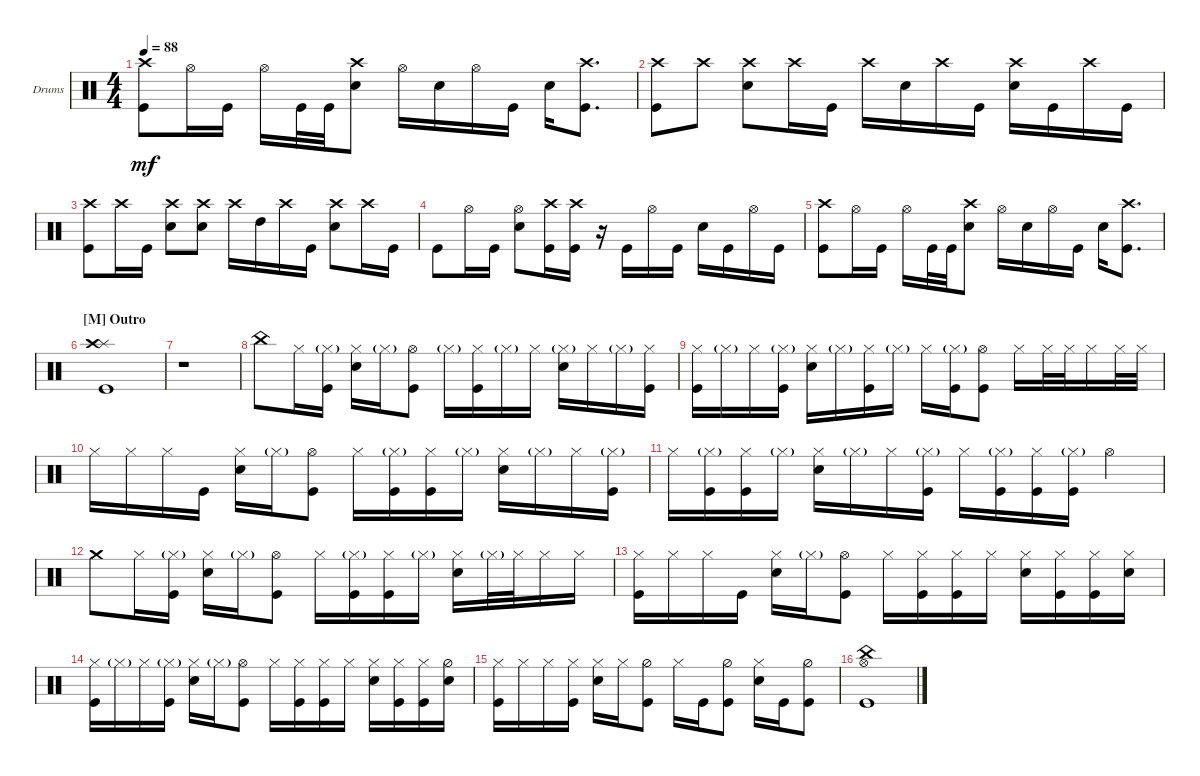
\defaultSystemsLayout 4
\bracketExtendMode groupsimilarinstruments
\firstSystemTrackNameOrientation horizontal
\otherSystemsTrackNameOrientation horizontal
\track ("Drumkit" "Drums") {instrument percussion}
\staff {score}
\articulation defaults
\ts (4 4)
\tempo 88
\clef neutral
\scale
0.333333
\ks c
("Kick (hit)" "Crash high (hit)").8{dy mf} "Hi-Hat (open)".16 "Kick (hit)".16 "Hi-Hat (open)".16 "Kick (hit)".32 "Kick (hit)".32 ("Snare (hit) 2" "Crash high (hit)").8 "Hi-Hat (open)".16 "Snare (hit) 2".16 "Hi-Hat (open)".16 "Kick (hit)".16 "Snare (hit) 2".16 ("Kick (hit)" "Crash high (hit)").8{d} |
\scale
0.333333 ("Kick (hit)" "Crash high (hit)").8 "Crash high (hit)".8 ("Crash high (hit)" "Snare (hit) 2").8 "Crash high (hit)".16 "Kick (hit)".16 "Crash high (hit)".16 "Snare (hit) 2".16 "Crash high (hit)".16 "Kick (hit)".16 ("Snare (hit) 2" "Crash high (hit)").16 "Kick (hit)".16 "Crash high (hit)".16 "Kick (hit)".16 |
\scale
0.333333 ("Crash high (hit)" "Kick (hit)").8 "Crash high (hit)".16 "Kick (hit)".16 ("Snare (hit) 2" "Crash high (hit)").8 ("Snare (hit) 2" "Crash high (hit)").8 "Crash high (hit)".16 "High Tom (hit)".16 "Crash high (hit)".16 "Kick (hit)".16 ("Snare (hit) 2" "Crash high (hit)").8 "Crash high (hit)".16 "Kick (hit)".16 |
\scale
0.333333 "Kick (hit)".8 "Hi-Hat (open)".16 "Kick (hit)".16 ("Snare (hit) 2" "Hi-Hat (open)").8 ("Kick (hit)" "Crash high (hit)").16 ("Kick (hit)" "Crash high (hit)").16 r.16 "Kick (hit)".16 "Hi-Hat (open)".16 "Kick (hit)".16 "Snare (hit) 2".16 "Kick (hit)".16 "Hi-Hat (open)".16 "Kick (hit)".16 |
\scale
0.333333 ("Kick (hit)" "Crash high (hit)").8 "Hi-Hat (open)".16 "Kick (hit)".16 "Hi-Hat (open)".16 "Kick (hit)".32 "Kick (hit)".32 ("Snare (hit) 2" "Crash high (hit)").8 "Hi-Hat (open)".16 "Snare (hit) 2".16 "Hi-Hat (open)".16 "Kick (hit)".16 "Snare (hit) 2".16 ("Kick (hit)" "Crash high (hit)").8{d} |
\section ("M" "Outro")
\scale
0.333333 ("Kick (hit)" "Splash (hit)" "Crash high (hit)").1 |
\scale
0.333333 r.1 |
\scale
0.333333 "China (hit)".8 "Hi-Hat (closed)".16 ("Hi-Hat (closed)"{g} "Kick (hit)").16 ("Hi-Hat (closed)" "Snare (hit) 2").16 "Hi-Hat (closed)"{g}.16 ("Hi-Hat (open)" "Kick (hit)").8 "Hi-Hat (closed)"{g}.16 ("Hi-Hat (closed)" "Kick (hit)").16 "Hi-Hat (closed)"{g}.16 "Hi-Hat (closed)".16 ("Hi-Hat (closed)"{g} "Snare (hit) 2").16 "Hi-Hat (closed)".16 "Hi-Hat (closed)"{g}.16 ("Hi-Hat (closed)" "Kick (hit)").16 |
\scale
0.333333 ("Hi-Hat (closed)" "Kick (hit)").16 "Hi-Hat (closed)"{g}.16 "Hi-Hat (closed)".16 ("Hi-Hat (closed)"{g} "Kick (hit)").16 ("Hi-Hat (closed)" "Snare (hit) 2").16 "Hi-Hat (closed)"{g}.16 ("Hi-Hat (closed)" "Kick (hit)").16 "Hi-Hat (closed)"{g}.16 "Hi-Hat (closed)".16 ("Hi-Hat (closed)"{g} "Kick (hit)").16 ("Hi-Hat (open)" "Kick (hit)").8 "Hi-Hat (closed)".16 "Hi-Hat (closed)".32 "Hi-Hat (closed)".32 "Hi-Hat (closed)".16 "Hi-Hat (closed)".32 "Hi-Hat (closed)".32 |
\scale
0.333333 "Hi-Hat (closed)".16 "Hi-Hat (closed)".16 "Hi-Hat (closed)".16 "Kick (hit)".16 ("Snare (hit) 2" "Hi-Hat (closed)").16 "Hi-Hat (closed)"{g}.16 ("Hi-Hat (open)" "Kick (hit)").8 "Hi-Hat (closed)".16 ("Hi-Hat (closed)"{g} "Kick (hit)").16 ("Hi-Hat (closed)" "Kick (hit)").16 "Hi-Hat (closed)"{g}.16 ("Hi-Hat (closed)" "Snare (hit) 2").16 "Hi-Hat (closed)"{g}.16 "Hi-Hat (closed)".16 ("Hi-Hat (closed)"{g} "Kick (hit)").16 |
\scale
0.333333 "Hi-Hat (closed)".16 ("Hi-Hat (closed)"{g} "Kick (hit)").16 ("Hi-Hat (closed)" "Kick (hit)").16 "Hi-Hat (closed)"{g}.16 ("Hi-Hat (closed)" "Snare (hit) 2").16 "Hi-Hat (closed)"{g}.16 "Hi-Hat (closed)".16 ("Hi-Hat (closed)"{g} "Kick (hit)").16 "Hi-Hat (closed)".16 ("Hi-Hat (closed)"{g} "Kick (hit)").16 ("Hi-Hat (closed)" "Kick (hit)").16 ("Hi-Hat (closed)"{g} "Kick (hit)").16 "Hi-Hat (open)".4 |
\scale
0.333333 "Crash medium (hit)".8 "Hi-Hat (closed)".16 ("Hi-Hat (closed)"{g} "Kick (hit)").16 ("Hi-Hat (closed)" "Snare (hit) 2").16 "Hi-Hat (closed)"{g}.16 ("Hi-Hat (open)" "Kick (hit)").8 "Hi-Hat (closed)".16 ("Hi-Hat (closed)"{g} "Kick (hit)").16 ("Hi-Hat (closed)" "Kick (hit)").16 "Hi-Hat (closed)"{g}.16 ("Hi-Hat (closed)" "Snare (hit) 2").16 "Hi-Hat (closed)"{g}.32 "Hi-Hat (closed)".32 "Hi-Hat (closed)".16 "Hi-Hat (closed)".16 |
\scale
0.333333 ("Hi-Hat (closed)" "Kick (hit)").16 "Hi-Hat (closed)".16 "Hi-Hat (closed)".16 "Kick (hit)".16 ("Hi-Hat (closed)" "Snare (hit) 2").16 "Hi-Hat (closed)"{g}.16 ("Hi-Hat (open)" "Kick (hit)").8 "Hi-Hat (closed)".16 ("Hi-Hat (closed)" "Kick (hit)").16 ("Hi-Hat (closed)" "Kick (hit)").16 "Hi-Hat (closed)".16 ("Hi-Hat (closed)" "Snare (hit) 2").16 ("Hi-Hat (closed)" "Kick (hit)").16 ("Hi-Hat (closed)" "Kick (hit)").16 ("Hi-Hat (closed)" "Snare (hit) 2").16 |
\scale
0.333333 ("Hi-Hat (closed)" "Kick (hit)").16 "Hi-Hat (closed)"{g}.16 "Hi-Hat (closed)".16 ("Hi-Hat (closed)"{g} "Kick (hit)").16 ("Hi-Hat (closed)" "Snare (hit) 2").16 "Hi-Hat (closed)"{g}.16 ("Hi-Hat (open)" "Kick (hit)").8 "Hi-Hat (closed)".16 ("Hi-Hat (closed)" "Kick (hit)").16 ("Hi-Hat (closed)" "Kick (hit)").16 "Hi-Hat (closed)".16 ("Hi-Hat (closed)" "Snare (hit) 2").16 ("Hi-Hat (closed)" "Kick (hit)").16 ("Hi-Hat (closed)" "Kick (hit)").16 ("Hi-Hat (half)" "Snare (hit) 2").16 |
\scale
0.333333 ("Hi-Hat (closed)" "Kick (hit)").16 "Hi-Hat (closed)".16 "Hi-Hat (closed)".16 ("Hi-Hat (closed)" "Kick (hit)").16 ("Hi-Hat (closed)" "Snare (hit) 2").16 "Hi-Hat (closed)".16 ("Hi-Hat (half)" "Kick (hit)").8 "Hi-Hat (closed)".16 "Kick (hit)".16 ("Kick (hit)" "Hi-Hat (half)").8 ("Hi-Hat (closed)" "Snare (hit) 2").16 "Kick (hit)".16 ("Kick (hit)" "Hi-Hat (half)").8 |
\scale
0.333333 ("China (hit)" "Kick (hit)" "Hi-Hat (open)").1
